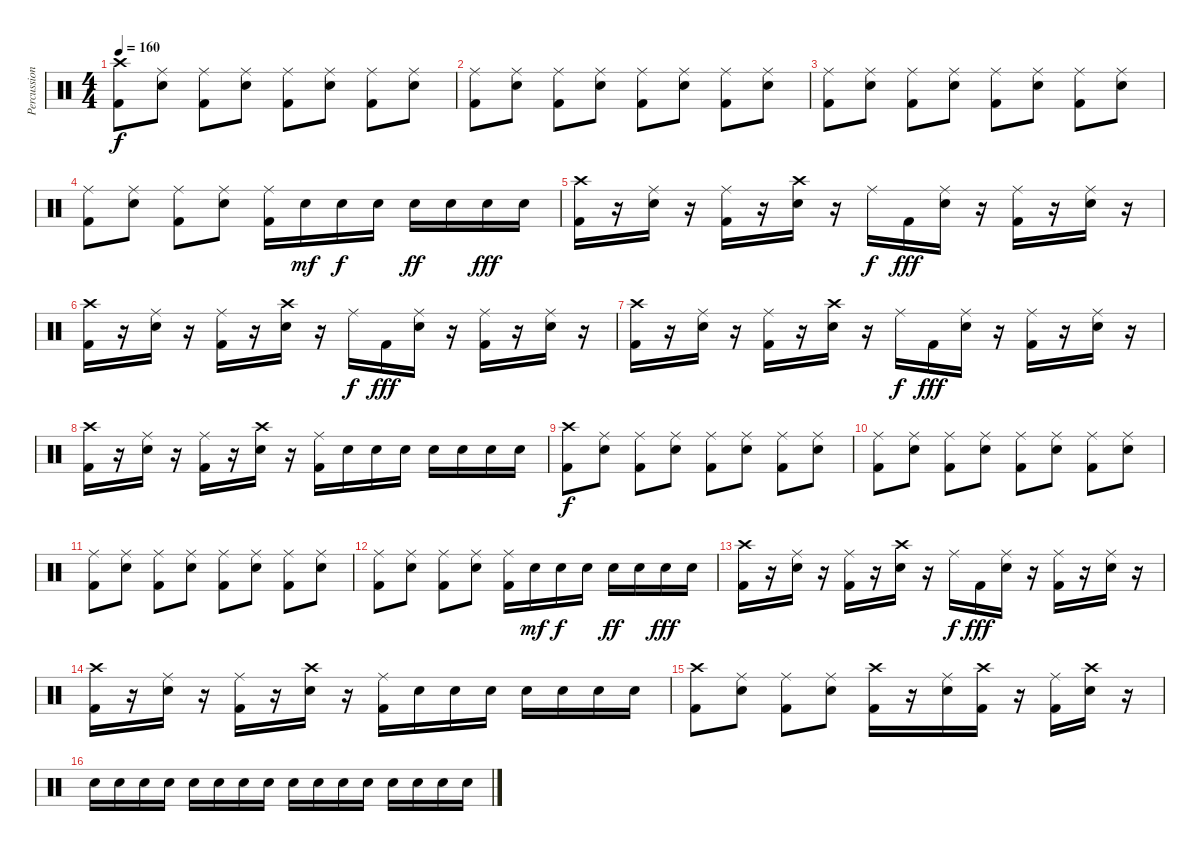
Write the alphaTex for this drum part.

\track ("Percussion" "Percussion") {instrument percussion}
\staff {score}
\articulation defaults
\ts (4 4)
\tempo 160
\clef neutral
\ks c
("Crash high (hit)" "Kick (hit) 2").8{dy f} ("Ride (middle)" "Electric Snare (hit)").8 ("Ride (middle)" "Kick (hit) 2").8 ("Ride (middle)" "Electric Snare (hit)").8 ("Ride (middle)" "Kick (hit) 2").8 ("Ride (middle)" "Electric Snare (hit)").8 ("Ride (middle)" "Kick (hit) 2").8 ("Ride (middle)" "Electric Snare (hit)").8 |
("Ride (middle)" "Kick (hit) 2").8 ("Ride (middle)" "Electric Snare (hit)").8 ("Ride (middle)" "Kick (hit) 2").8 ("Ride (middle)" "Electric Snare (hit)").8 ("Ride (middle)" "Kick (hit) 2").8 ("Ride (middle)" "Electric Snare (hit)").8 ("Ride (middle)" "Kick (hit) 2").8 ("Ride (middle)" "Electric Snare (hit)").8 |
("Ride (middle)" "Kick (hit) 2").8 ("Ride (middle)" "Electric Snare (hit)").8 ("Ride (middle)" "Kick (hit) 2").8 ("Ride (middle)" "Electric Snare (hit)").8 ("Ride (middle)" "Kick (hit) 2").8 ("Ride (middle)" "Electric Snare (hit)").8 ("Ride (middle)" "Kick (hit) 2").8 ("Ride (middle)" "Electric Snare (hit)").8 |
("Ride (middle)" "Kick (hit) 2").8 ("Ride (middle)" "Electric Snare (hit)").8 ("Ride (middle)" "Kick (hit) 2").8 ("Ride (middle)" "Electric Snare (hit)").8 ("Ride (middle)" "Kick (hit) 2").16 "Electric Snare (hit)".16{dy mf} "Electric Snare (hit)".16{dy f} "Electric Snare (hit)".16 "Electric Snare (hit)".16{dy ff} "Electric Snare (hit)".16 "Electric Snare (hit)".16{dy fff} "Electric Snare (hit)".16 |
("Crash high (hit)" "Kick (hit) 2").16 r.16 ("Ride (middle)" "Electric Snare (hit)").16 r.16 ("Ride (middle)" "Kick (hit) 2").16 r.16 ("Crash high (hit)" "Electric Snare (hit)").16 r.16 "Ride (middle)".16{dy f} "Kick (hit) 2".16{dy fff} ("Ride (middle)" "Electric Snare (hit)").16 r.16 ("Ride (middle)" "Kick (hit) 2").16 r.16 ("Ride (middle)" "Electric Snare (hit)").16 r.16 |
("Crash high (hit)" "Kick (hit) 2").16 r.16 ("Ride (middle)" "Electric Snare (hit)").16 r.16 ("Ride (middle)" "Kick (hit) 2").16 r.16 ("Crash high (hit)" "Electric Snare (hit)").16 r.16 "Ride (middle)".16{dy f} "Kick (hit) 2".16{dy fff} ("Ride (middle)" "Electric Snare (hit)").16 r.16 ("Ride (middle)" "Kick (hit) 2").16 r.16 ("Ride (middle)" "Electric Snare (hit)").16 r.16 |
("Crash high (hit)" "Kick (hit) 2").16 r.16 ("Ride (middle)" "Electric Snare (hit)").16 r.16 ("Ride (middle)" "Kick (hit) 2").16 r.16 ("Crash high (hit)" "Electric Snare (hit)").16 r.16 "Ride (middle)".16{dy f} "Kick (hit) 2".16{dy fff} ("Ride (middle)" "Electric Snare (hit)").16 r.16 ("Ride (middle)" "Kick (hit) 2").16 r.16 ("Ride (middle)" "Electric Snare (hit)").16 r.16 |
("Crash high (hit)" "Kick (hit) 2").16 r.16 ("Ride (middle)" "Electric Snare (hit)").16 r.16 ("Ride (middle)" "Kick (hit) 2").16 r.16 ("Crash high (hit)" "Electric Snare (hit)").16 r.16 ("Ride (middle)" "Kick (hit) 2").16 "Electric Snare (hit)".16 "Electric Snare (hit)".16 "Electric Snare (hit)".16 "Electric Snare (hit)".16 "Electric Snare (hit)".16 "Electric Snare (hit)".16 "Electric Snare (hit)".16 |
("Crash high (hit)" "Kick (hit) 2").8{dy f} ("Ride (middle)" "Electric Snare (hit)").8 ("Ride (middle)" "Kick (hit) 2").8 ("Ride (middle)" "Electric Snare (hit)").8 ("Ride (middle)" "Kick (hit) 2").8 ("Ride (middle)" "Electric Snare (hit)").8 ("Ride (middle)" "Kick (hit) 2").8 ("Ride (middle)" "Electric Snare (hit)").8 |
("Ride (middle)" "Kick (hit) 2").8 ("Ride (middle)" "Electric Snare (hit)").8 ("Ride (middle)" "Kick (hit) 2").8 ("Ride (middle)" "Electric Snare (hit)").8 ("Ride (middle)" "Kick (hit) 2").8 ("Ride (middle)" "Electric Snare (hit)").8 ("Ride (middle)" "Kick (hit) 2").8 ("Ride (middle)" "Electric Snare (hit)").8 |
("Ride (middle)" "Kick (hit) 2").8 ("Ride (middle)" "Electric Snare (hit)").8 ("Ride (middle)" "Kick (hit) 2").8 ("Ride (middle)" "Electric Snare (hit)").8 ("Ride (middle)" "Kick (hit) 2").8 ("Ride (middle)" "Electric Snare (hit)").8 ("Ride (middle)" "Kick (hit) 2").8 ("Ride (middle)" "Electric Snare (hit)").8 |
("Ride (middle)" "Kick (hit) 2").8 ("Ride (middle)" "Electric Snare (hit)").8 ("Ride (middle)" "Kick (hit) 2").8 ("Ride (middle)" "Electric Snare (hit)").8 ("Ride (middle)" "Kick (hit) 2").16 "Electric Snare (hit)".16{dy mf} "Electric Snare (hit)".16{dy f} "Electric Snare (hit)".16 "Electric Snare (hit)".16{dy ff} "Electric Snare (hit)".16 "Electric Snare (hit)".16{dy fff} "Electric Snare (hit)".16 |
("Crash high (hit)" "Kick (hit) 2").16 r.16 ("Ride (middle)" "Electric Snare (hit)").16 r.16 ("Ride (middle)" "Kick (hit) 2").16 r.16 ("Crash high (hit)" "Electric Snare (hit)").16 r.16 "Ride (middle)".16{dy f} "Kick (hit) 2".16{dy fff} ("Ride (middle)" "Electric Snare (hit)").16 r.16 ("Ride (middle)" "Kick (hit) 2").16 r.16 ("Ride (middle)" "Electric Snare (hit)").16 r.16 |
("Crash high (hit)" "Kick (hit) 2").16 r.16 ("Ride (middle)" "Electric Snare (hit)").16 r.16 ("Ride (middle)" "Kick (hit) 2").16 r.16 ("Crash high (hit)" "Electric Snare (hit)").16 r.16 ("Ride (middle)" "Kick (hit) 2").16 "Electric Snare (hit)".16 "Electric Snare (hit)".16 "Electric Snare (hit)".16 "Electric Snare (hit)".16 "Electric Snare (hit)".16 "Electric Snare (hit)".16 "Electric Snare (hit)".16 |
("Crash high (hit)" "Kick (hit) 2").8 ("Ride (middle)" "Electric Snare (hit)").8 ("Ride (middle)" "Kick (hit) 2").8 ("Ride (middle)" "Electric Snare (hit)").8 ("Crash high (hit)" "Kick (hit) 2").16 r.16 ("Ride (middle)" "Electric Snare (hit)").16 ("Crash high (hit)" "Kick (hit) 2").16 r.16 ("Ride (middle)" "Kick (hit) 2").16 ("Crash high (hit)" "Electric Snare (hit)").16 r.16 |
"Electric Snare (hit)".16 "Electric Snare (hit)".16 "Electric Snare (hit)".16 "Electric Snare (hit)".16 "Electric Snare (hit)".16 "Electric Snare (hit)".16 "Electric Snare (hit)".16 "Electric Snare (hit)".16 "Electric Snare (hit)".16 "Electric Snare (hit)".16 "Electric Snare (hit)".16 "Electric Snare (hit)".16 "Electric Snare (hit)".16 "Electric Snare (hit)".16 "Electric Snare (hit)".16 "Electric Snare (hit)".16
